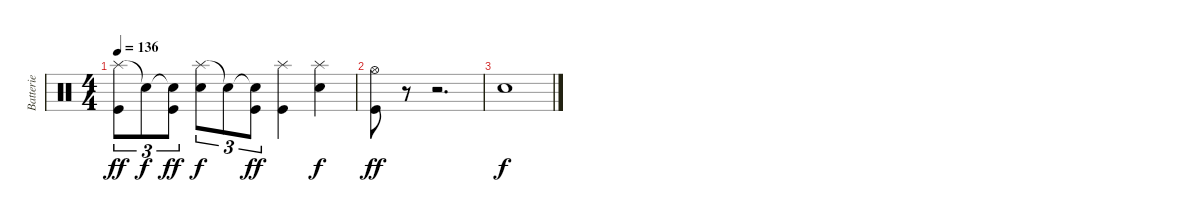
\track ("Batterie" "Batterie") {instrument percussion}
\staff {score}
\articulation defaults
\ts (4 4)
\tempo 136
\clef neutral
\ks c
("Splash (hit)" "Kick (hit)").8{tu (3 2) dy ff} "Snare (hit)"{t}.8{tu (3 2) dy f} ("Snare (hit)"{t} "Kick (hit)").8{tu (3 2) dy ff} ("Splash (hit)" "Snare (hit) 2").8{tu (3 2) dy f} "Snare (hit)"{t}.8{tu (3 2)} ("Snare (hit)"{t} "Kick (hit)").8{tu (3 2) dy ff} ("Splash (hit)" "Kick (hit)").4 ("Splash (hit)" "Snare (hit) 2").4{dy f} |
("Hi-Hat (open)" "Kick (hit)").8{dy ff} r.8 r.2{d} |
"Electric Snare (hit)".1{dy f}
